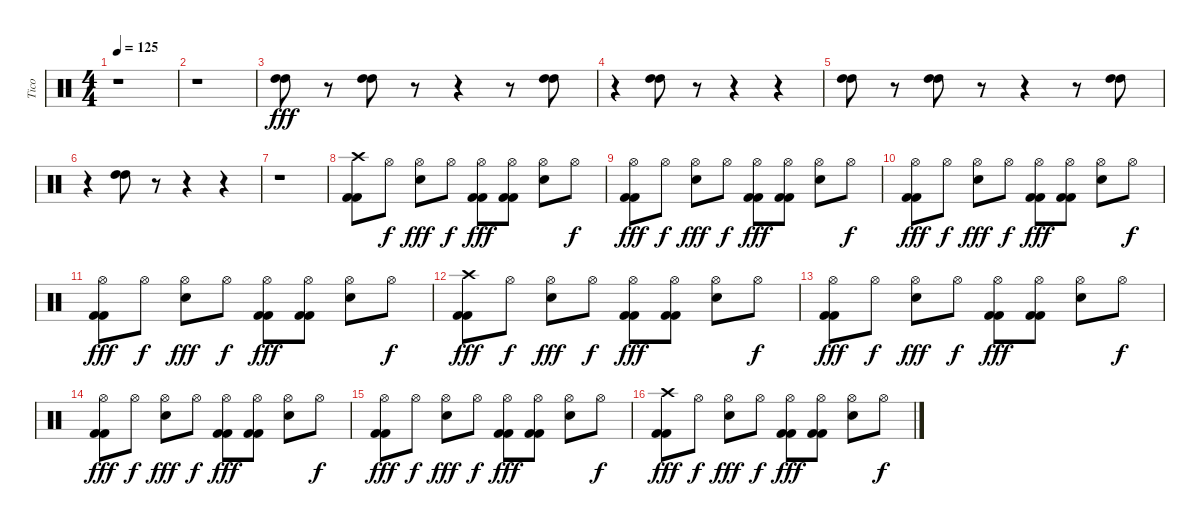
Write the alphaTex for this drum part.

\track ("Tico" "Tico") {instrument percussion}
\staff {score}
\articulation defaults
\ts (4 4)
\tempo 125
\clef neutral
\ks c
r.1{dy fff} |
r.1 |
("High Tom (hit)" "High Tom (hit)").8 r.8 ("High Tom (hit)" "High Tom (hit)").8 r.8 r.4 r.8 ("High Tom (hit)" "High Tom (hit)").8 |
r.4 ("High Tom (hit)" "High Tom (hit)").8 r.8 r.4 r.4 |
("High Tom (hit)" "High Tom (hit)").8 r.8 ("High Tom (hit)" "High Tom (hit)").8 r.8 r.4 r.8 ("High Tom (hit)" "High Tom (hit)").8 |
r.4 ("High Tom (hit)" "High Tom (hit)").8 r.8 r.4 r.4 |
r.1 |
("Crash high (hit)" "Kick (hit) 2" "Kick (hit) 2").8 "Hi-Hat (open)".8{dy f} ("Hi-Hat (open)" "Snare (hit) 2").8{dy fff} "Hi-Hat (open)".8{dy f} ("Hi-Hat (open)" "Kick (hit) 2" "Kick (hit) 2").8{dy fff} ("Hi-Hat (open)" "Kick (hit) 2" "Kick (hit) 2").8 ("Hi-Hat (open)" "Snare (hit) 2").8 "Hi-Hat (open)".8{dy f} |
("Hi-Hat (open)" "Kick (hit) 2" "Kick (hit) 2").8{dy fff} "Hi-Hat (open)".8{dy f} ("Hi-Hat (open)" "Snare (hit) 2").8{dy fff} "Hi-Hat (open)".8{dy f} ("Hi-Hat (open)" "Kick (hit) 2" "Kick (hit) 2").8{dy fff} ("Hi-Hat (open)" "Kick (hit) 2" "Kick (hit) 2").8 ("Hi-Hat (open)" "Snare (hit) 2").8 "Hi-Hat (open)".8{dy f} |
("Hi-Hat (open)" "Kick (hit) 2" "Kick (hit) 2").8{dy fff} "Hi-Hat (open)".8{dy f} ("Hi-Hat (open)" "Snare (hit) 2").8{dy fff} "Hi-Hat (open)".8{dy f} ("Hi-Hat (open)" "Kick (hit) 2" "Kick (hit) 2").8{dy fff} ("Hi-Hat (open)" "Kick (hit) 2" "Kick (hit) 2").8 ("Hi-Hat (open)" "Snare (hit) 2").8 "Hi-Hat (open)".8{dy f} |
("Hi-Hat (open)" "Kick (hit) 2" "Kick (hit) 2").8{dy fff} "Hi-Hat (open)".8{dy f} ("Hi-Hat (open)" "Snare (hit) 2").8{dy fff} "Hi-Hat (open)".8{dy f} ("Hi-Hat (open)" "Kick (hit) 2" "Kick (hit) 2").8{dy fff} ("Hi-Hat (open)" "Kick (hit) 2" "Kick (hit) 2").8 ("Hi-Hat (open)" "Snare (hit) 2").8 "Hi-Hat (open)".8{dy f} |
("Crash high (hit)" "Kick (hit) 2" "Kick (hit) 2").8{dy fff} "Hi-Hat (open)".8{dy f} ("Hi-Hat (open)" "Snare (hit) 2").8{dy fff} "Hi-Hat (open)".8{dy f} ("Hi-Hat (open)" "Kick (hit) 2" "Kick (hit) 2").8{dy fff} ("Hi-Hat (open)" "Kick (hit) 2" "Kick (hit) 2").8 ("Hi-Hat (open)" "Snare (hit) 2").8 "Hi-Hat (open)".8{dy f} |
("Hi-Hat (open)" "Kick (hit) 2" "Kick (hit) 2").8{dy fff} "Hi-Hat (open)".8{dy f} ("Hi-Hat (open)" "Snare (hit) 2").8{dy fff} "Hi-Hat (open)".8{dy f} ("Hi-Hat (open)" "Kick (hit) 2" "Kick (hit) 2").8{dy fff} ("Hi-Hat (open)" "Kick (hit) 2" "Kick (hit) 2").8 ("Hi-Hat (open)" "Snare (hit) 2").8 "Hi-Hat (open)".8{dy f} |
("Hi-Hat (open)" "Kick (hit) 2" "Kick (hit) 2").8{dy fff} "Hi-Hat (open)".8{dy f} ("Hi-Hat (open)" "Snare (hit) 2").8{dy fff} "Hi-Hat (open)".8{dy f} ("Hi-Hat (open)" "Kick (hit) 2" "Kick (hit) 2").8{dy fff} ("Hi-Hat (open)" "Kick (hit) 2" "Kick (hit) 2").8 ("Hi-Hat (open)" "Snare (hit) 2").8 "Hi-Hat (open)".8{dy f} |
("Hi-Hat (open)" "Kick (hit) 2" "Kick (hit) 2").8{dy fff} "Hi-Hat (open)".8{dy f} ("Hi-Hat (open)" "Snare (hit) 2").8{dy fff} "Hi-Hat (open)".8{dy f} ("Hi-Hat (open)" "Kick (hit) 2" "Kick (hit) 2").8{dy fff} ("Hi-Hat (open)" "Kick (hit) 2" "Kick (hit) 2").8 ("Hi-Hat (open)" "Snare (hit) 2").8 "Hi-Hat (open)".8{dy f} |
("Crash high (hit)" "Kick (hit) 2" "Kick (hit) 2").8{dy fff} "Hi-Hat (open)".8{dy f} ("Hi-Hat (open)" "Snare (hit) 2").8{dy fff} "Hi-Hat (open)".8{dy f} ("Hi-Hat (open)" "Kick (hit) 2" "Kick (hit) 2").8{dy fff} ("Hi-Hat (open)" "Kick (hit) 2" "Kick (hit) 2").8 ("Hi-Hat (open)" "Snare (hit) 2").8 "Hi-Hat (open)".8{dy f}
